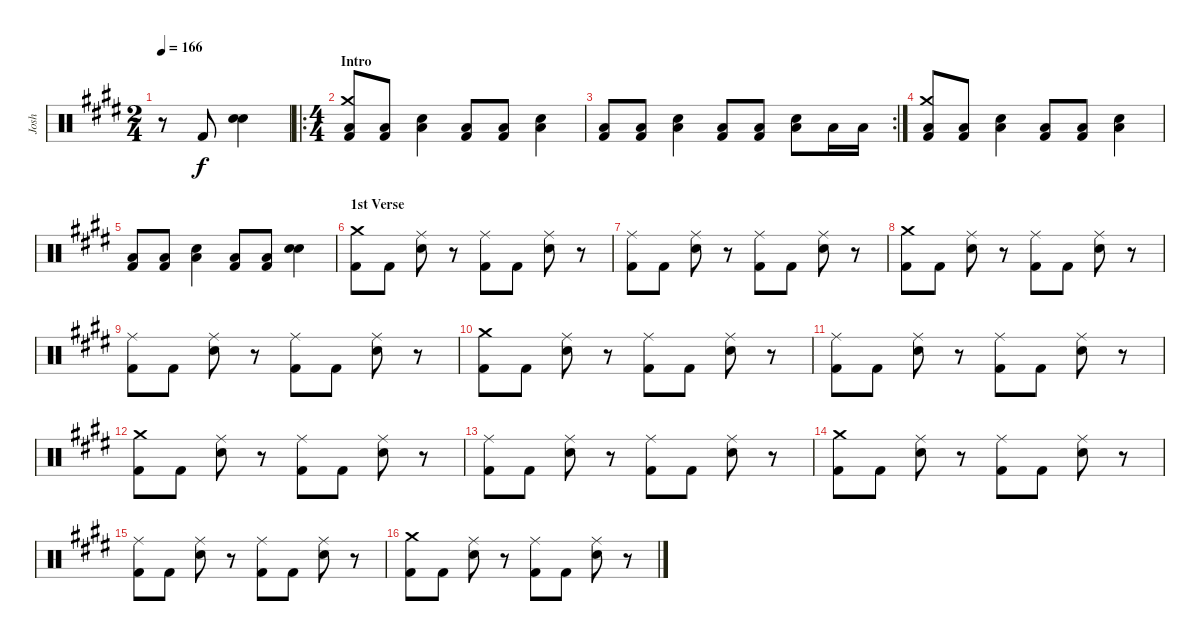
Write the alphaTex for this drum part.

\track ("Josh" "Josh") {instrument percussion}
\staff {score}
\articulation defaults
\ts (2 4)
\tempo 166
\clef neutral
\ks e
r.8{dy f} "Kick (hit) 2".8 ("Electric Snare (hit)" "Electric Snare (hit)").4{bu 240} |
\ro
\ts (4 4)
\section ("" "Intro")
("Crash medium (hit)" "Low Floor Tom (hit)" "Kick (hit) 2").8 ("Low Floor Tom (hit)" "Kick (hit) 2").8 ("Low Floor Tom (hit)" "Electric Snare (hit)").4 ("Low Floor Tom (hit)" "Kick (hit) 2").8 ("Low Floor Tom (hit)" "Kick (hit) 2").8 ("Low Floor Tom (hit)" "Electric Snare (hit)").4 |
\rc 2
("Low Floor Tom (hit)" "Kick (hit) 2").8 ("Low Floor Tom (hit)" "Kick (hit) 2").8 ("Low Floor Tom (hit)" "Electric Snare (hit)").4 ("Low Floor Tom (hit)" "Kick (hit) 2").8 ("Low Floor Tom (hit)" "Kick (hit) 2").8 ("Low Floor Tom (hit)" "Electric Snare (hit)").8 "Low Floor Tom (hit)".16 "Low Floor Tom (hit)".16 |
("Crash medium (hit)" "Low Floor Tom (hit)" "Kick (hit) 2").8 ("Low Floor Tom (hit)" "Kick (hit) 2").8 ("Low Floor Tom (hit)" "Electric Snare (hit)").4 ("Low Floor Tom (hit)" "Kick (hit) 2").8 ("Low Floor Tom (hit)" "Kick (hit) 2").8 ("Low Floor Tom (hit)" "Electric Snare (hit)").4 |
("Low Floor Tom (hit)" "Kick (hit) 2").8 ("Low Floor Tom (hit)" "Kick (hit) 2").8 ("Low Floor Tom (hit)" "Electric Snare (hit)").4 ("Low Floor Tom (hit)" "Kick (hit) 2").8 ("Low Floor Tom (hit)" "Kick (hit) 2").8 ("Electric Snare (hit)" "Electric Snare (hit)").4{bu 240} |
\section ("" "1st Verse")
("Crash medium (hit)" "Kick (hit) 2").8 "Kick (hit) 2".8 ("Ride (middle)" "Electric Snare (hit)").8 r.8 ("Ride (middle)" "Kick (hit) 2").8 "Kick (hit) 2".8 ("Ride (middle)" "Electric Snare (hit)").8 r.8 |
("Ride (middle)" "Kick (hit) 2").8 "Kick (hit) 2".8 ("Ride (middle)" "Electric Snare (hit)").8 r.8 ("Ride (middle)" "Kick (hit) 2").8 "Kick (hit) 2".8 ("Ride (middle)" "Electric Snare (hit)").8 r.8 |
("Crash medium (hit)" "Kick (hit) 2").8 "Kick (hit) 2".8 ("Ride (middle)" "Electric Snare (hit)").8 r.8 ("Ride (middle)" "Kick (hit) 2").8 "Kick (hit) 2".8 ("Ride (middle)" "Electric Snare (hit)").8 r.8 |
("Ride (middle)" "Kick (hit) 2").8 "Kick (hit) 2".8 ("Ride (middle)" "Electric Snare (hit)").8 r.8 ("Ride (middle)" "Kick (hit) 2").8 "Kick (hit) 2".8 ("Ride (middle)" "Electric Snare (hit)").8 r.8 |
("Crash medium (hit)" "Kick (hit) 2").8 "Kick (hit) 2".8 ("Ride (middle)" "Electric Snare (hit)").8 r.8 ("Ride (middle)" "Kick (hit) 2").8 "Kick (hit) 2".8 ("Ride (middle)" "Electric Snare (hit)").8 r.8 |
("Ride (middle)" "Kick (hit) 2").8 "Kick (hit) 2".8 ("Ride (middle)" "Electric Snare (hit)").8 r.8 ("Ride (middle)" "Kick (hit) 2").8 "Kick (hit) 2".8 ("Ride (middle)" "Electric Snare (hit)").8 r.8 |
("Crash medium (hit)" "Kick (hit) 2").8 "Kick (hit) 2".8 ("Ride (middle)" "Electric Snare (hit)").8 r.8 ("Ride (middle)" "Kick (hit) 2").8 "Kick (hit) 2".8 ("Ride (middle)" "Electric Snare (hit)").8 r.8 |
("Ride (middle)" "Kick (hit) 2").8 "Kick (hit) 2".8 ("Ride (middle)" "Electric Snare (hit)").8 r.8 ("Ride (middle)" "Kick (hit) 2").8 "Kick (hit) 2".8 ("Ride (middle)" "Electric Snare (hit)").8 r.8 |
("Crash medium (hit)" "Kick (hit) 2").8 "Kick (hit) 2".8 ("Ride (middle)" "Electric Snare (hit)").8 r.8 ("Ride (middle)" "Kick (hit) 2").8 "Kick (hit) 2".8 ("Ride (middle)" "Electric Snare (hit)").8 r.8 |
("Ride (middle)" "Kick (hit) 2").8 "Kick (hit) 2".8 ("Ride (middle)" "Electric Snare (hit)").8 r.8 ("Ride (middle)" "Kick (hit) 2").8 "Kick (hit) 2".8 ("Ride (middle)" "Electric Snare (hit)").8 r.8 |
("Crash medium (hit)" "Kick (hit) 2").8 "Kick (hit) 2".8 ("Ride (middle)" "Electric Snare (hit)").8 r.8 ("Ride (middle)" "Kick (hit) 2").8 "Kick (hit) 2".8 ("Ride (middle)" "Electric Snare (hit)").8 r.8
